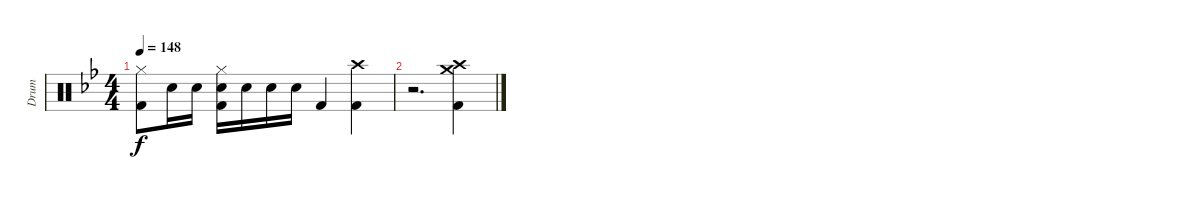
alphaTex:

\track ("Drum" "Drum") {instrument percussion}
\staff {score}
\articulation defaults
\ts (4 4)
\tempo 148
\clef neutral
\ks bb
("Hi-Hat (closed)" "Kick (hit) 2").8{dy f} "Snare (hit) 2".16 "Snare (hit) 2".16 ("Hi-Hat (closed)" "Snare (hit) 2" "Kick (hit) 2").16 "Snare (hit) 2".16 "Snare (hit) 2".16 "Snare (hit) 2".16 "Kick (hit) 2".4 ("Crash high (hit)" "Kick (hit) 2").4 |
r.2{d} ("Crash high (hit)" "Crash medium (hit)" "Kick (hit) 2").4
